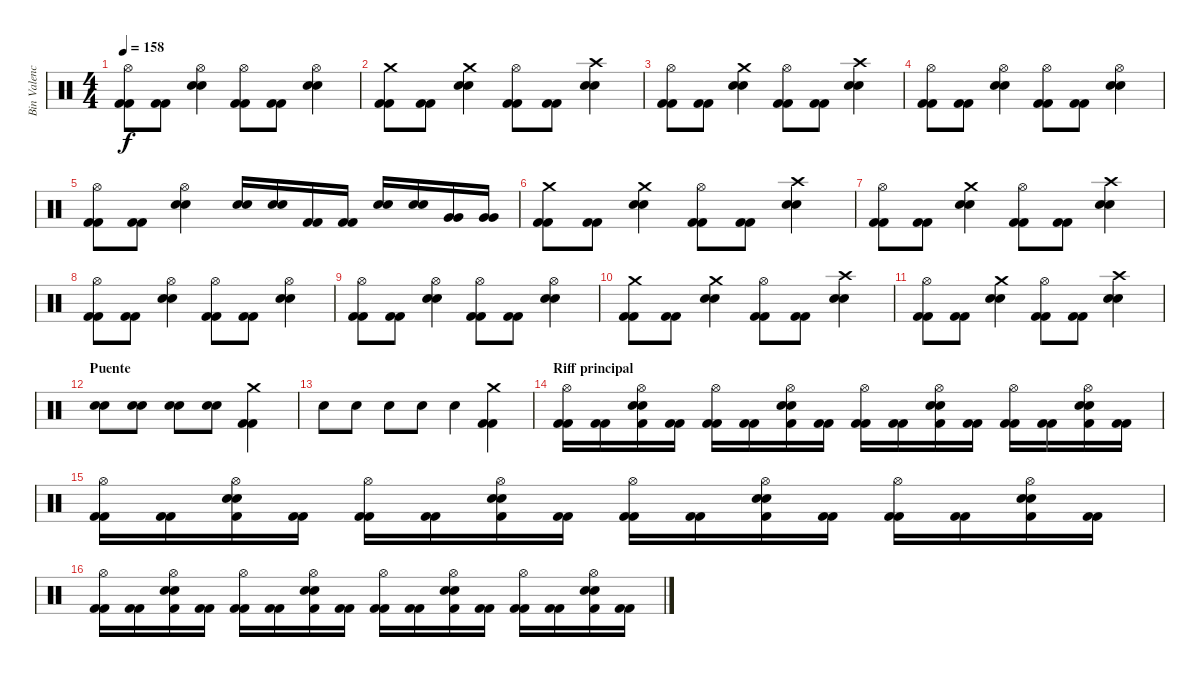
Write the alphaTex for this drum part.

\track ("Bin Valencia (bateria)" "Bin Valenc") {instrument percussion}
\staff {score}
\articulation defaults
\ts (4 4)
\tempo 158
\clef neutral
\ks c
("Hi-Hat (open)" "Kick (hit) 2" "Kick (hit) 2").8{dy f} ("Kick (hit) 2" "Kick (hit) 2").8 ("Hi-Hat (open)" "Snare (hit) 2" "Snare (hit) 2").4 ("Hi-Hat (open)" "Kick (hit) 2" "Kick (hit) 2").8 ("Kick (hit) 2" "Kick (hit) 2").8 ("Hi-Hat (open)" "Snare (hit) 2" "Snare (hit) 2").4 |
("Crash medium (hit)" "Kick (hit) 2" "Kick (hit) 2").8 ("Kick (hit) 2" "Kick (hit) 2").8 ("Crash medium (hit)" "Snare (hit) 2" "Snare (hit) 2").4 ("Hi-Hat (open)" "Kick (hit) 2" "Kick (hit) 2").8 ("Kick (hit) 2" "Kick (hit) 2").8 ("Crash high (hit)" "Snare (hit) 2" "Snare (hit) 2").4 |
("Hi-Hat (open)" "Kick (hit) 2" "Kick (hit) 2").8 ("Kick (hit) 2" "Kick (hit) 2").8 ("Crash medium (hit)" "Snare (hit) 2" "Snare (hit) 2").4 ("Hi-Hat (open)" "Kick (hit) 2" "Kick (hit) 2").8 ("Kick (hit) 2" "Kick (hit) 2").8 ("Crash high (hit)" "Snare (hit) 2" "Snare (hit) 2").4 |
("Hi-Hat (open)" "Kick (hit) 2" "Kick (hit) 2").8 ("Kick (hit) 2" "Kick (hit) 2").8 ("Hi-Hat (open)" "Snare (hit) 2" "Snare (hit) 2").4 ("Hi-Hat (open)" "Kick (hit) 2" "Kick (hit) 2").8 ("Kick (hit) 2" "Kick (hit) 2").8 ("Hi-Hat (open)" "Snare (hit) 2" "Snare (hit) 2").4 |
("Hi-Hat (open)" "Kick (hit) 2" "Kick (hit) 2").8 ("Kick (hit) 2" "Kick (hit) 2").8 ("Hi-Hat (open)" "Snare (hit) 2" "Snare (hit) 2").4 ("Snare (hit) 2" "Snare (hit) 2").16 ("Snare (hit) 2" "Snare (hit) 2").16 ("Kick (hit) 2" "Kick (hit) 2").16 ("Kick (hit) 2" "Kick (hit) 2").16 ("Snare (hit) 2" "Snare (hit) 2").16 ("Snare (hit) 2" "Snare (hit) 2").16 ("Very Low Tom (hit)" "Very Low Tom (hit)").16 ("Very Low Tom (hit)" "Very Low Tom (hit)").16 |
("Crash medium (hit)" "Kick (hit) 2" "Kick (hit) 2").8 ("Kick (hit) 2" "Kick (hit) 2").8 ("Crash medium (hit)" "Snare (hit) 2" "Snare (hit) 2").4 ("Hi-Hat (open)" "Kick (hit) 2" "Kick (hit) 2").8 ("Kick (hit) 2" "Kick (hit) 2").8 ("Crash high (hit)" "Snare (hit) 2" "Snare (hit) 2").4 |
("Hi-Hat (open)" "Kick (hit) 2" "Kick (hit) 2").8 ("Kick (hit) 2" "Kick (hit) 2").8 ("Crash medium (hit)" "Snare (hit) 2" "Snare (hit) 2").4 ("Hi-Hat (open)" "Kick (hit) 2" "Kick (hit) 2").8 ("Kick (hit) 2" "Kick (hit) 2").8 ("Crash high (hit)" "Snare (hit) 2" "Snare (hit) 2").4 |
("Hi-Hat (open)" "Kick (hit) 2" "Kick (hit) 2").8 ("Kick (hit) 2" "Kick (hit) 2").8 ("Hi-Hat (open)" "Snare (hit) 2" "Snare (hit) 2").4 ("Hi-Hat (open)" "Kick (hit) 2" "Kick (hit) 2").8 ("Kick (hit) 2" "Kick (hit) 2").8 ("Hi-Hat (open)" "Snare (hit) 2" "Snare (hit) 2").4 |
("Hi-Hat (open)" "Kick (hit) 2" "Kick (hit) 2").8 ("Kick (hit) 2" "Kick (hit) 2").8 ("Hi-Hat (open)" "Snare (hit) 2" "Snare (hit) 2").4 ("Hi-Hat (open)" "Kick (hit) 2" "Kick (hit) 2").8 ("Kick (hit) 2" "Kick (hit) 2").8 ("Hi-Hat (open)" "Snare (hit) 2" "Snare (hit) 2").4 |
("Crash medium (hit)" "Kick (hit) 2" "Kick (hit) 2").8 ("Kick (hit) 2" "Kick (hit) 2").8 ("Crash medium (hit)" "Snare (hit) 2" "Snare (hit) 2").4 ("Hi-Hat (open)" "Kick (hit) 2" "Kick (hit) 2").8 ("Kick (hit) 2" "Kick (hit) 2").8 ("Crash high (hit)" "Snare (hit) 2" "Snare (hit) 2").4 |
("Hi-Hat (open)" "Kick (hit) 2" "Kick (hit) 2").8 ("Kick (hit) 2" "Kick (hit) 2").8 ("Crash medium (hit)" "Snare (hit) 2" "Snare (hit) 2").4 ("Hi-Hat (open)" "Kick (hit) 2" "Kick (hit) 2").8 ("Kick (hit) 2" "Kick (hit) 2").8 ("Crash high (hit)" "Snare (hit) 2" "Snare (hit) 2").4 |
\section ("" "Puente")
("Electric Snare (hit)" "Electric Snare (hit)").8 ("Electric Snare (hit)" "Electric Snare (hit)").8 ("Electric Snare (hit)" "Electric Snare (hit)").8 ("Electric Snare (hit)" "Electric Snare (hit)").8 ("Crash medium (hit)" "Kick (hit) 2" "Kick (hit) 2").4 |
"Electric Snare (hit)".8 "Electric Snare (hit)".8 "Electric Snare (hit)".8 "Electric Snare (hit)".8 "Electric Snare (hit)".4 ("Crash medium (hit)" "Kick (hit) 2" "Kick (hit) 2").4 |
\section ("" "Riff principal")
("Hi-Hat (open)" "Kick (hit) 2" "Kick (hit) 2").16 ("Kick (hit) 2" "Kick (hit) 2").16 ("Hi-Hat (open)" "Snare (hit) 2" "Snare (hit) 2" "Kick (hit) 2").16 ("Kick (hit) 2" "Kick (hit) 2").16 ("Hi-Hat (open)" "Kick (hit) 2" "Kick (hit) 2").16 ("Kick (hit) 2" "Kick (hit) 2").16 ("Hi-Hat (open)" "Snare (hit) 2" "Snare (hit) 2" "Kick (hit) 2").16 ("Kick (hit) 2" "Kick (hit) 2").16 ("Hi-Hat (open)" "Kick (hit) 2" "Kick (hit) 2").16 ("Kick (hit) 2" "Kick (hit) 2").16 ("Hi-Hat (open)" "Snare (hit) 2" "Snare (hit) 2" "Kick (hit) 2").16 ("Kick (hit) 2" "Kick (hit) 2").16 ("Hi-Hat (open)" "Kick (hit) 2" "Kick (hit) 2").16 ("Kick (hit) 2" "Kick (hit) 2").16 ("Hi-Hat (open)" "Snare (hit) 2" "Snare (hit) 2" "Kick (hit) 2").16 ("Kick (hit) 2" "Kick (hit) 2").16 |
("Hi-Hat (open)" "Kick (hit) 2" "Kick (hit) 2").16 ("Kick (hit) 2" "Kick (hit) 2").16 ("Hi-Hat (open)" "Snare (hit) 2" "Snare (hit) 2" "Kick (hit) 2").16 ("Kick (hit) 2" "Kick (hit) 2").16 ("Hi-Hat (open)" "Kick (hit) 2" "Kick (hit) 2").16 ("Kick (hit) 2" "Kick (hit) 2").16 ("Hi-Hat (open)" "Snare (hit) 2" "Snare (hit) 2" "Kick (hit) 2").16 ("Kick (hit) 2" "Kick (hit) 2").16 ("Hi-Hat (open)" "Kick (hit) 2" "Kick (hit) 2").16 ("Kick (hit) 2" "Kick (hit) 2").16 ("Hi-Hat (open)" "Snare (hit) 2" "Snare (hit) 2" "Kick (hit) 2").16 ("Kick (hit) 2" "Kick (hit) 2").16 ("Hi-Hat (open)" "Kick (hit) 2" "Kick (hit) 2").16 ("Kick (hit) 2" "Kick (hit) 2").16 ("Hi-Hat (open)" "Snare (hit) 2" "Snare (hit) 2" "Kick (hit) 2").16 ("Kick (hit) 2" "Kick (hit) 2").16 |
("Hi-Hat (open)" "Kick (hit) 2" "Kick (hit) 2").16 ("Kick (hit) 2" "Kick (hit) 2").16 ("Hi-Hat (open)" "Snare (hit) 2" "Snare (hit) 2" "Kick (hit) 2").16 ("Kick (hit) 2" "Kick (hit) 2").16 ("Hi-Hat (open)" "Kick (hit) 2" "Kick (hit) 2").16 ("Kick (hit) 2" "Kick (hit) 2").16 ("Hi-Hat (open)" "Snare (hit) 2" "Snare (hit) 2" "Kick (hit) 2").16 ("Kick (hit) 2" "Kick (hit) 2").16 ("Hi-Hat (open)" "Kick (hit) 2" "Kick (hit) 2").16 ("Kick (hit) 2" "Kick (hit) 2").16 ("Hi-Hat (open)" "Snare (hit) 2" "Snare (hit) 2" "Kick (hit) 2").16 ("Kick (hit) 2" "Kick (hit) 2").16 ("Hi-Hat (open)" "Kick (hit) 2" "Kick (hit) 2").16 ("Kick (hit) 2" "Kick (hit) 2").16 ("Hi-Hat (open)" "Snare (hit) 2" "Snare (hit) 2" "Kick (hit) 2").16 ("Kick (hit) 2" "Kick (hit) 2").16
